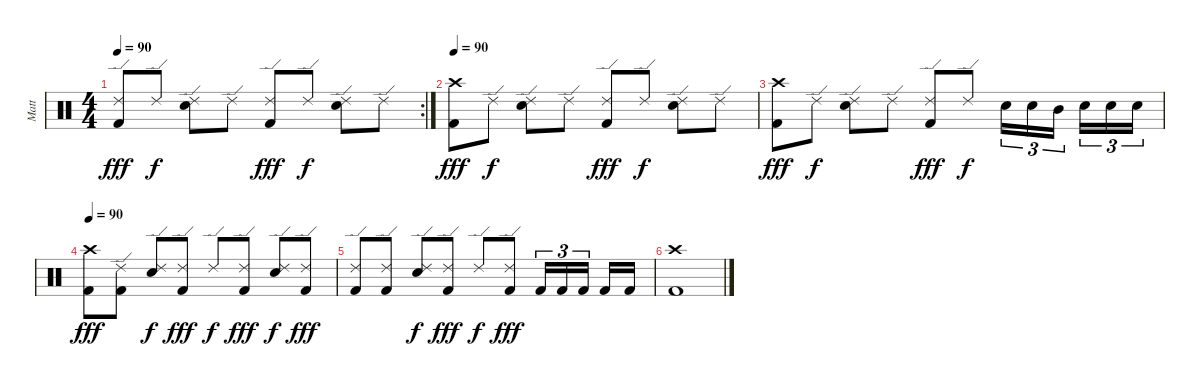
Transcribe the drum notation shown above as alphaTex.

\track ("Matt" "Matt") {instrument percussion}
\staff {score}
\articulation defaults
\rc 2
\ts (4 4)
\tempo 90
\clef neutral
\ks c
("Ride (edge) 2" "Kick (hit) 2").8{dy fff} "Ride (edge) 2".8{dy f} ("Ride (edge) 2" "Electric Snare (hit)").8 "Ride (edge) 2".8 ("Ride (edge) 2" "Kick (hit) 2").8{dy fff} "Ride (edge) 2".8{dy f} ("Ride (edge) 2" "Electric Snare (hit)").8 "Ride (edge) 2".8 |
\tempo 90
("Crash high (hit)" "Kick (hit) 2").8{dy fff} "Ride (edge) 2".8{dy f} ("Ride (edge) 2" "Electric Snare (hit)").8 "Ride (edge) 2".8 ("Ride (edge) 2" "Kick (hit) 2").8{dy fff} "Ride (edge) 2".8{dy f} ("Ride (edge) 2" "Electric Snare (hit)").8 "Ride (edge) 2".8 |
("Crash high (hit)" "Kick (hit) 2").8{dy fff} "Ride (edge) 2".8{dy f} ("Ride (edge) 2" "Electric Snare (hit)").8 "Ride (edge) 2".8 ("Ride (edge) 2" "Kick (hit) 2").8{dy fff} "Ride (edge) 2".8{dy f} "Electric Snare (hit)".16{tu (3 2)} "Electric Snare (hit)".16{tu (3 2)} "Mid Tom (hit)".16{tu (3 2)} "Electric Snare (hit)".16{tu (3 2)} "Electric Snare (hit)".16{tu (3 2)} "Electric Snare (hit)".16{tu (3 2)} |
\tempo 90
("Crash high (hit)" "Kick (hit) 2").8{dy fff} ("Ride (edge) 2" "Kick (hit) 2").8 ("Ride (edge) 2" "Electric Snare (hit)").8{dy f} ("Ride (edge) 2" "Kick (hit) 2").8{dy fff} "Ride (edge) 2".8{dy f} ("Ride (edge) 2" "Kick (hit) 2").8{dy fff} ("Ride (edge) 2" "Electric Snare (hit)").8{dy f} ("Ride (edge) 2" "Kick (hit) 2").8{dy fff} |
("Ride (edge) 2" "Kick (hit) 2").8 ("Ride (edge) 2" "Kick (hit) 2").8 ("Ride (edge) 2" "Electric Snare (hit)").8{dy f} ("Ride (edge) 2" "Kick (hit) 2").8{dy fff} "Ride (edge) 2".8{dy f} ("Ride (edge) 2" "Kick (hit) 2").8{dy fff} "Kick (hit) 2".16{tu (3 2)} "Kick (hit) 2".16{tu (3 2)} "Kick (hit) 2".16{tu (3 2)} "Kick (hit) 2".16 "Kick (hit) 2".16 |
("Crash high (hit)" "Kick (hit) 2").1
